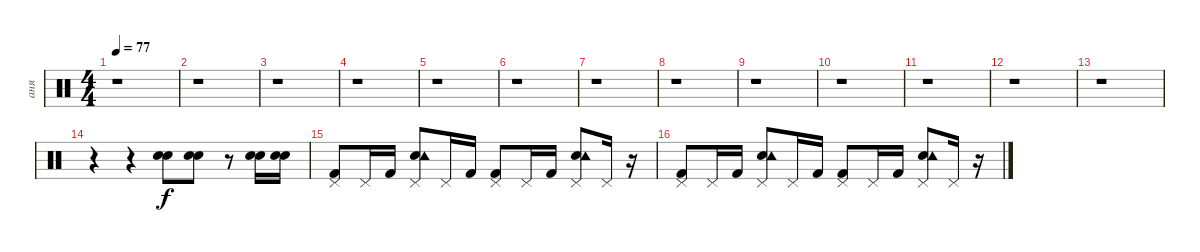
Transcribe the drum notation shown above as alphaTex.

\track ("аня" "аня") {instrument percussion}
\staff {score}
\articulation defaults
\ts (4 4)
\tempo 77
\clef neutral
\ks c
r.1{dy f} |
r.1 |
r.1 |
r.1 |
r.1 |
r.1 |
r.1 |
r.1 |
r.1 |
r.1 |
r.1 |
r.1 |
r.1 |
r.4 r.4 ("Electric Snare (hit)" "Snare (hit) 2").8 ("Electric Snare (hit)" "Snare (hit) 2").8 r.8 ("Electric Snare (hit)" "Snare (hit) 2").16 ("Electric Snare (hit)" "Snare (hit) 2").16 |
("Kick (hit) 2" "Pedal Hi-Hat (hit)").8 "Pedal Hi-Hat (hit)".16 "Kick (hit) 2".16 ("Snare (hit) 2" "Tambourine (hit)" "Pedal Hi-Hat (hit)").8 "Pedal Hi-Hat (hit)".16 "Kick (hit) 2".16 ("Kick (hit) 2" "Pedal Hi-Hat (hit)").8 "Pedal Hi-Hat (hit)".16 "Kick (hit) 2".16 ("Snare (hit) 2" "Tambourine (hit)" "Pedal Hi-Hat (hit)").8 "Pedal Hi-Hat (hit)".16 r.16 |
("Kick (hit) 2" "Pedal Hi-Hat (hit)").8 "Pedal Hi-Hat (hit)".16 "Kick (hit) 2".16 ("Snare (hit) 2" "Tambourine (hit)" "Pedal Hi-Hat (hit)").8 "Pedal Hi-Hat (hit)".16 "Kick (hit) 2".16 ("Kick (hit) 2" "Pedal Hi-Hat (hit)").8 "Pedal Hi-Hat (hit)".16 "Kick (hit) 2".16 ("Snare (hit) 2" "Tambourine (hit)" "Pedal Hi-Hat (hit)").8 "Pedal Hi-Hat (hit)".16 r.16
